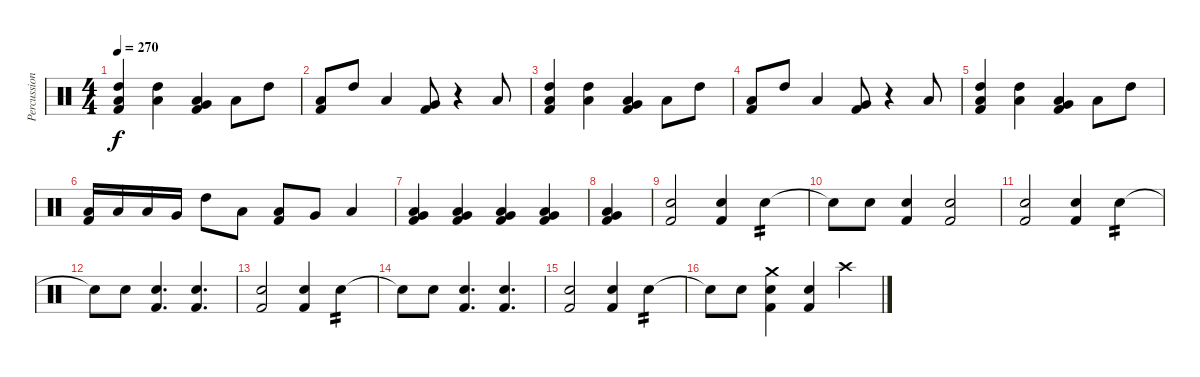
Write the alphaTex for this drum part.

\track ("Percussion" "Percussion") {instrument percussion}
\staff {score}
\articulation defaults
\ts (4 4)
\tempo 270
\clef neutral
\ks c
("Low Tom (hit)" "High Tom (hit)" "Kick (hit) 2").4{dy f} ("Low Tom (hit)" "High Tom (hit)").4 ("Very Low Tom (hit)" "Low Tom (hit)" "Kick (hit) 2").4 "Low Tom (hit)".8 "High Tom (hit)".8 |
("Low Tom (hit)" "Kick (hit) 2").8 "High Tom (hit)".8 "Low Tom (hit)".4 ("Very Low Tom (hit)" "Kick (hit) 2").8 r.4 "Low Tom (hit)".8 |
("Low Tom (hit)" "High Tom (hit)" "Kick (hit) 2").4 ("Low Tom (hit)" "High Tom (hit)").4 ("Very Low Tom (hit)" "Low Tom (hit)" "Kick (hit) 2").4 "Low Tom (hit)".8 "High Tom (hit)".8 |
("Low Tom (hit)" "Kick (hit) 2").8 "High Tom (hit)".8 "Low Tom (hit)".4 ("Very Low Tom (hit)" "Kick (hit) 2").8 r.4 "Low Tom (hit)".8 |
("Low Tom (hit)" "High Tom (hit)" "Kick (hit) 2").4 ("Low Tom (hit)" "High Tom (hit)").4 ("Very Low Tom (hit)" "Low Tom (hit)" "Kick (hit) 2").4 "Low Tom (hit)".8 "High Tom (hit)".8 |
("Low Tom (hit)" "Kick (hit) 2").16 "Low Tom (hit)".16 "Low Tom (hit)".16 "Very Low Tom (hit)".16 "High Tom (hit)".8 "Low Tom (hit)".8 ("Low Tom (hit)" "Kick (hit) 2").8 "Very Low Tom (hit)".8 "Low Floor Tom (hit)".4 |
("Low Tom (hit)" "Very Low Tom (hit)" "Kick (hit) 2").4 ("Low Tom (hit)" "Very Low Tom (hit)" "Kick (hit) 2").4 ("Low Tom (hit)" "Very Low Tom (hit)" "Kick (hit) 2").4 ("Low Tom (hit)" "Very Low Tom (hit)" "Kick (hit) 2").4 |
("Low Tom (hit)" "Very Low Tom (hit)" "Kick (hit) 2").4 |
("Electric Snare (hit)" "Kick (hit) 2").2 ("Electric Snare (hit)" "Kick (hit) 2").4 "Electric Snare (hit)".4{tp 2} |
"Snare (hit)"{t}.8 "Electric Snare (hit)".8 ("Electric Snare (hit)" "Kick (hit) 2").4 ("Electric Snare (hit)" "Kick (hit) 2").2 |
("Electric Snare (hit)" "Kick (hit) 2").2 ("Electric Snare (hit)" "Kick (hit) 2").4 "Electric Snare (hit)".4{tp 2} |
"Snare (hit)"{t}.8 "Electric Snare (hit)".8 ("Electric Snare (hit)" "Kick (hit) 2").4{d} ("Electric Snare (hit)" "Kick (hit) 2").4{d} |
("Electric Snare (hit)" "Kick (hit) 2").2 ("Electric Snare (hit)" "Kick (hit) 2").4 "Electric Snare (hit)".4{tp 2} |
"Electric Snare (hit)"{t}.8 "Electric Snare (hit)".8 ("Electric Snare (hit)" "Kick (hit) 2").4{d} ("Electric Snare (hit)" "Kick (hit) 2").4{d} |
("Electric Snare (hit)" "Kick (hit) 2").2 ("Electric Snare (hit)" "Kick (hit) 2").4 "Electric Snare (hit)".4{tp 2} |
"Snare (hit)"{t}.8 "Electric Snare (hit)".8 ("Crash medium (hit)" "Electric Snare (hit)" "Kick (hit) 2").4 ("Electric Snare (hit)" "Kick (hit) 2").4 "Crash high (hit)".4{volume 0}
